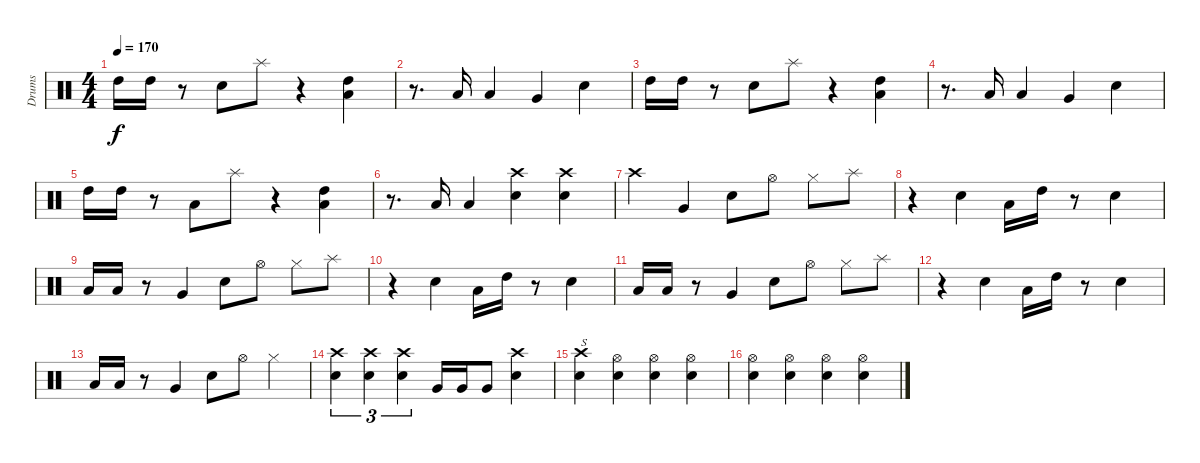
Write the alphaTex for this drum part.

\track ("Drums" "Drums") {instrument percussion}
\staff {score}
\articulation defaults
\ts (4 4)
\tempo 170
\clef neutral
\ks c "High Tom (hit)".16{dy f} "High Tom (hit)".16
r.8 "Snare (hit) 2".8 "Splash (hit)".8 r.4 ("High Tom (hit)" "Low Tom (hit)").4 |
r.8{d} "Low Tom (hit)".16 "Low Tom (hit)".4 "Very Low Tom (hit)".4 "Snare (hit) 2".4 |
"High Tom (hit)".16 "High Tom (hit)".16 r.8 "Snare (hit) 2".8 "Splash (hit)".8 r.4 ("High Tom (hit)" "Low Tom (hit)").4 |
r.8{d} "Low Tom (hit)".16 "Low Tom (hit)".4 "Very Low Tom (hit)".4 "Snare (hit) 2".4 |
"High Tom (hit)".16 "High Tom (hit)".16 r.8 "Low Tom (hit)".8 "Splash (hit)".8 r.4 ("High Tom (hit)" "Low Tom (hit)").4 |
r.8{d} "Low Tom (hit)".16 "Low Tom (hit)".4 ("Crash high (hit)" "Snare (hit) 2").4 ("Crash high (hit)" "Snare (hit) 2").4 |
"Crash high (hit)".4 "Very Low Tom (hit)".4 "Snare (hit) 2".8 "Hi-Hat (open)".8 "Hi-Hat (closed)".8 "Splash (hit)".8 |
r.4 "Snare (hit) 2".4 "Low Tom (hit)".16 "High Tom (hit)".16 r.8 "Snare (hit) 2".4 |
"Low Tom (hit)".16 "Low Tom (hit)".16 r.8 "Very Low Tom (hit)".4 "Snare (hit) 2".8 "Hi-Hat (open)".8 "Hi-Hat (closed)".8 "Splash (hit)".8 |
r.4 "Snare (hit) 2".4 "Low Tom (hit)".16 "High Tom (hit)".16 r.8 "Snare (hit) 2".4 |
"Low Tom (hit)".16 "Low Tom (hit)".16 r.8 "Very Low Tom (hit)".4 "Snare (hit) 2".8 "Hi-Hat (open)".8 "Hi-Hat (closed)".8 "Splash (hit)".8 |
r.4 "Snare (hit) 2".4 "Low Tom (hit)".16 "High Tom (hit)".16 r.8 "Snare (hit) 2".4 |
"Low Tom (hit)".16 "Low Tom (hit)".16 r.8 "Very Low Tom (hit)".4 "Snare (hit) 2".8 "Hi-Hat (open)".8 "Hi-Hat (closed)".4 |
("Crash high (hit)" "Snare (hit) 2").4{tu (3 2)} ("Crash high (hit)" "Snare (hit) 2").4{tu (3 2)} ("Crash high (hit)" "Snare (hit) 2").4{tu (3 2)} "Very Low Tom (hit)".16 "Very Low Tom (hit)".16 "Very Low Tom (hit)".8 ("Crash high (hit)" "Snare (hit) 2").4 |
("Crash high (hit)" "Snare (hit) 2").4{txt "S"} ("Hi-Hat (open)" "Snare (hit) 2").4 ("Hi-Hat (open)" "Snare (hit) 2").4 ("Hi-Hat (open)" "Snare (hit) 2").4 |
("Hi-Hat (open)" "Snare (hit) 2").4 ("Hi-Hat (open)" "Snare (hit) 2").4 ("Hi-Hat (open)" "Snare (hit) 2").4 ("Hi-Hat (open)" "Snare (hit) 2").4
